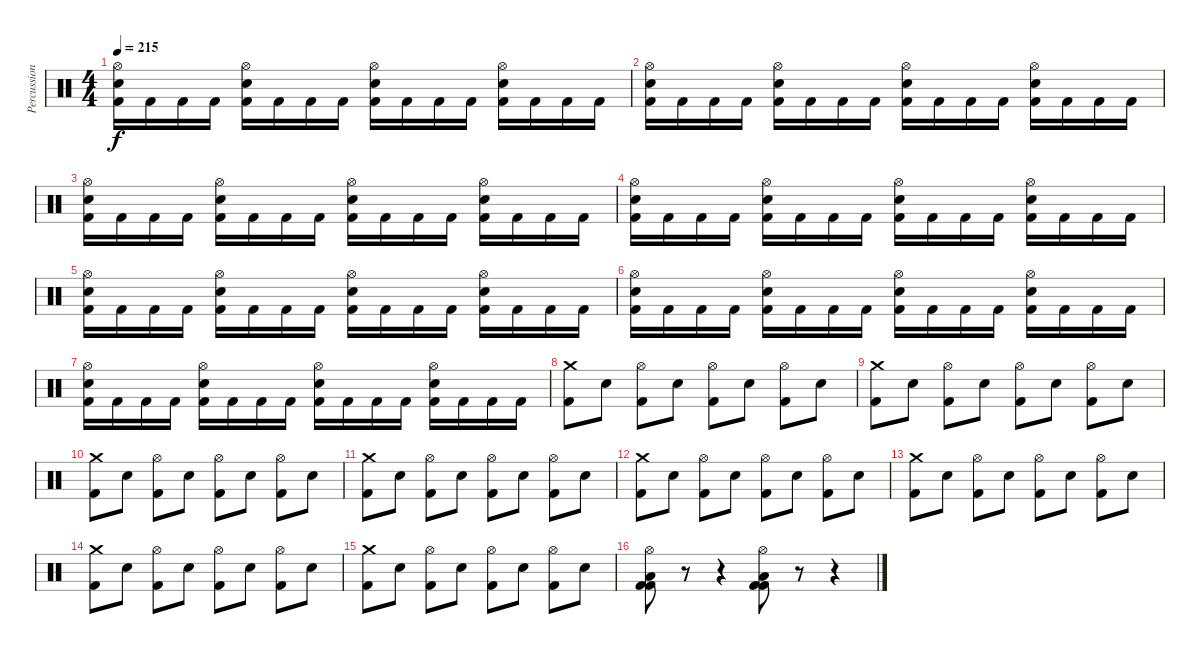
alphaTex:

\track ("Percussion" "Percussion") {instrument percussion}
\staff {score}
\articulation defaults
\ts (4 4)
\tempo 215
\clef neutral
\ks c
("Hi-Hat (open)" "Electric Snare (hit)" "Kick (hit) 2").16{dy f} "Kick (hit) 2".16 "Kick (hit) 2".16 "Kick (hit) 2".16 ("Hi-Hat (open)" "Electric Snare (hit)" "Kick (hit) 2").16 "Kick (hit) 2".16 "Kick (hit) 2".16 "Kick (hit) 2".16 ("Hi-Hat (open)" "Electric Snare (hit)" "Kick (hit) 2").16 "Kick (hit) 2".16 "Kick (hit) 2".16 "Kick (hit) 2".16 ("Hi-Hat (open)" "Electric Snare (hit)" "Kick (hit) 2").16 "Kick (hit) 2".16 "Kick (hit) 2".16 "Kick (hit) 2".16 |
("Hi-Hat (open)" "Electric Snare (hit)" "Kick (hit) 2").16 "Kick (hit) 2".16 "Kick (hit) 2".16 "Kick (hit) 2".16 ("Hi-Hat (open)" "Electric Snare (hit)" "Kick (hit) 2").16 "Kick (hit) 2".16 "Kick (hit) 2".16 "Kick (hit) 2".16 ("Hi-Hat (open)" "Electric Snare (hit)" "Kick (hit) 2").16 "Kick (hit) 2".16 "Kick (hit) 2".16 "Kick (hit) 2".16 ("Hi-Hat (open)" "Electric Snare (hit)" "Kick (hit) 2").16 "Kick (hit) 2".16 "Kick (hit) 2".16 "Kick (hit) 2".16 |
("Hi-Hat (open)" "Electric Snare (hit)" "Kick (hit) 2").16 "Kick (hit) 2".16 "Kick (hit) 2".16 "Kick (hit) 2".16 ("Hi-Hat (open)" "Electric Snare (hit)" "Kick (hit) 2").16 "Kick (hit) 2".16 "Kick (hit) 2".16 "Kick (hit) 2".16 ("Hi-Hat (open)" "Electric Snare (hit)" "Kick (hit) 2").16 "Kick (hit) 2".16 "Kick (hit) 2".16 "Kick (hit) 2".16 ("Hi-Hat (open)" "Electric Snare (hit)" "Kick (hit) 2").16 "Kick (hit) 2".16 "Kick (hit) 2".16 "Kick (hit) 2".16 |
("Hi-Hat (open)" "Electric Snare (hit)" "Kick (hit) 2").16 "Kick (hit) 2".16 "Kick (hit) 2".16 "Kick (hit) 2".16 ("Hi-Hat (open)" "Electric Snare (hit)" "Kick (hit) 2").16 "Kick (hit) 2".16 "Kick (hit) 2".16 "Kick (hit) 2".16 ("Hi-Hat (open)" "Electric Snare (hit)" "Kick (hit) 2").16 "Kick (hit) 2".16 "Kick (hit) 2".16 "Kick (hit) 2".16 ("Hi-Hat (open)" "Electric Snare (hit)" "Kick (hit) 2").16 "Kick (hit) 2".16 "Kick (hit) 2".16 "Kick (hit) 2".16 |
("Hi-Hat (open)" "Electric Snare (hit)" "Kick (hit) 2").16 "Kick (hit) 2".16 "Kick (hit) 2".16 "Kick (hit) 2".16 ("Hi-Hat (open)" "Electric Snare (hit)" "Kick (hit) 2").16 "Kick (hit) 2".16 "Kick (hit) 2".16 "Kick (hit) 2".16 ("Hi-Hat (open)" "Electric Snare (hit)" "Kick (hit) 2").16 "Kick (hit) 2".16 "Kick (hit) 2".16 "Kick (hit) 2".16 ("Hi-Hat (open)" "Electric Snare (hit)" "Kick (hit) 2").16 "Kick (hit) 2".16 "Kick (hit) 2".16 "Kick (hit) 2".16 |
("Hi-Hat (open)" "Electric Snare (hit)" "Kick (hit) 2").16 "Kick (hit) 2".16 "Kick (hit) 2".16 "Kick (hit) 2".16 ("Hi-Hat (open)" "Electric Snare (hit)" "Kick (hit) 2").16 "Kick (hit) 2".16 "Kick (hit) 2".16 "Kick (hit) 2".16 ("Hi-Hat (open)" "Electric Snare (hit)" "Kick (hit) 2").16 "Kick (hit) 2".16 "Kick (hit) 2".16 "Kick (hit) 2".16 ("Hi-Hat (open)" "Electric Snare (hit)" "Kick (hit) 2").16 "Kick (hit) 2".16 "Kick (hit) 2".16 "Kick (hit) 2".16 |
("Hi-Hat (open)" "Electric Snare (hit)" "Kick (hit) 2").16 "Kick (hit) 2".16 "Kick (hit) 2".16 "Kick (hit) 2".16 ("Hi-Hat (open)" "Electric Snare (hit)" "Kick (hit) 2").16 "Kick (hit) 2".16 "Kick (hit) 2".16 "Kick (hit) 2".16 ("Hi-Hat (open)" "Electric Snare (hit)" "Kick (hit) 2").16 "Kick (hit) 2".16 "Kick (hit) 2".16 "Kick (hit) 2".16 ("Hi-Hat (open)" "Electric Snare (hit)" "Kick (hit) 2").16 "Kick (hit) 2".16 "Kick (hit) 2".16 "Kick (hit) 2".16 |
("Crash medium (hit)" "Kick (hit) 2").8 "Electric Snare (hit)".8 ("Hi-Hat (open)" "Kick (hit) 2").8 "Electric Snare (hit)".8 ("Hi-Hat (open)" "Kick (hit) 2").8 "Electric Snare (hit)".8 ("Hi-Hat (open)" "Kick (hit) 2").8 "Electric Snare (hit)".8 |
("Crash medium (hit)" "Kick (hit) 2").8 "Electric Snare (hit)".8 ("Hi-Hat (open)" "Kick (hit) 2").8 "Electric Snare (hit)".8 ("Hi-Hat (open)" "Kick (hit) 2").8 "Electric Snare (hit)".8 ("Hi-Hat (open)" "Kick (hit) 2").8 "Electric Snare (hit)".8 |
("Crash medium (hit)" "Kick (hit) 2").8 "Electric Snare (hit)".8 ("Hi-Hat (open)" "Kick (hit) 2").8 "Electric Snare (hit)".8 ("Hi-Hat (open)" "Kick (hit) 2").8 "Electric Snare (hit)".8 ("Hi-Hat (open)" "Kick (hit) 2").8 "Electric Snare (hit)".8 |
("Crash medium (hit)" "Kick (hit) 2").8 "Electric Snare (hit)".8 ("Hi-Hat (open)" "Kick (hit) 2").8 "Electric Snare (hit)".8 ("Hi-Hat (open)" "Kick (hit) 2").8 "Electric Snare (hit)".8 ("Hi-Hat (open)" "Kick (hit) 2").8 "Electric Snare (hit)".8 |
("Crash medium (hit)" "Kick (hit) 2").8 "Electric Snare (hit)".8 ("Hi-Hat (open)" "Kick (hit) 2").8 "Electric Snare (hit)".8 ("Hi-Hat (open)" "Kick (hit) 2").8 "Electric Snare (hit)".8 ("Hi-Hat (open)" "Kick (hit) 2").8 "Electric Snare (hit)".8 |
("Crash medium (hit)" "Kick (hit) 2").8 "Electric Snare (hit)".8 ("Hi-Hat (open)" "Kick (hit) 2").8 "Electric Snare (hit)".8 ("Hi-Hat (open)" "Kick (hit) 2").8 "Electric Snare (hit)".8 ("Hi-Hat (open)" "Kick (hit) 2").8 "Electric Snare (hit)".8 |
("Crash medium (hit)" "Kick (hit) 2").8 "Electric Snare (hit)".8 ("Hi-Hat (open)" "Kick (hit) 2").8 "Electric Snare (hit)".8 ("Hi-Hat (open)" "Kick (hit) 2").8 "Electric Snare (hit)".8 ("Hi-Hat (open)" "Kick (hit) 2").8 "Electric Snare (hit)".8 |
("Crash medium (hit)" "Kick (hit) 2").8 "Electric Snare (hit)".8 ("Hi-Hat (open)" "Kick (hit) 2").8 "Electric Snare (hit)".8 ("Hi-Hat (open)" "Kick (hit) 2").8 "Electric Snare (hit)".8 ("Hi-Hat (open)" "Kick (hit) 2").8 "Electric Snare (hit)".8 |
("Low Floor Tom (hit)" "Hi-Hat (open)" "Kick (hit) 2" "Kick (hit) 2").8 r.8 r.4 ("Low Floor Tom (hit)" "Hi-Hat (open)" "Kick (hit) 2" "Kick (hit) 2").8 r.8 r.4
